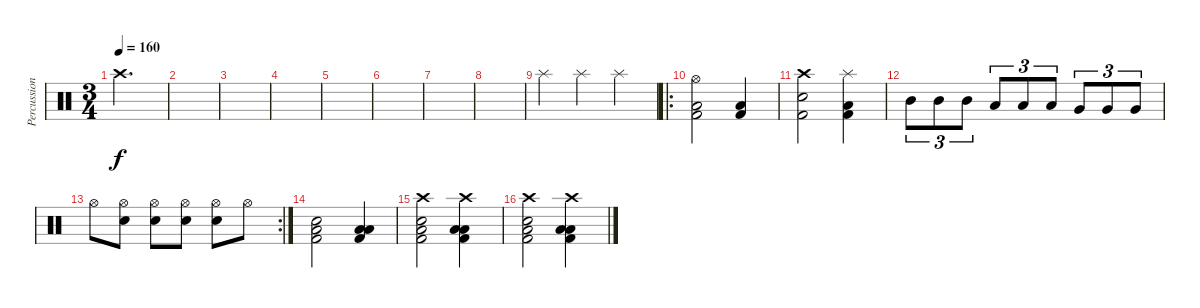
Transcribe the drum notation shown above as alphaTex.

\track ("Percussion" "Percussion") {instrument percussion}
\staff {score}
\articulation defaults
\ts (3 4)
\tempo 160
\clef neutral
\ks c "Crash high (hit)".2{d dy f}
|
|
|
|
|
|
|
|
"Splash (hit)".4 "Splash (hit)".4 "Splash (hit)".4 |
\ro
("Hi-Hat (open)" "Low Floor Tom (hit)" "Kick (hit) 2").2 ("Low Floor Tom (hit)" "Kick (hit) 2").4 |
("Crash high (hit)" "Snare (hit) 2" "Kick (hit) 2").2 ("Splash (hit)" "Low Floor Tom (hit)" "Kick (hit) 2").4 |
"Mid Tom (hit)".8{tu (3 2)} "Mid Tom (hit)".8{tu (3 2)} "Mid Tom (hit)".8{tu (3 2)} "Low Tom (hit)".8{tu (3 2)} "Low Tom (hit)".8{tu (3 2)} "Low Tom (hit)".8{tu (3 2)} "Very Low Tom (hit)".8{tu (3 2)} "Very Low Tom (hit)".8{tu (3 2)} "Very Low Tom (hit)".8{tu (3 2)} |
\rc 2 "Hi-Hat (open)".8
("Hi-Hat (open)" "Snare (hit) 2").8 ("Hi-Hat (open)" "Snare (hit) 2").8 ("Hi-Hat (open)" "Snare (hit) 2").8 ("Hi-Hat (open)" "Snare (hit) 2").8 "Hi-Hat (open)".8 |
("Snare (hit) 2" "Low Floor Tom (hit)" "Kick (hit) 2").2 ("Low Tom (hit)" "Low Floor Tom (hit)" "Kick (hit) 2").4 |
("Crash high (hit)" "Snare (hit) 2" "Low Floor Tom (hit)" "Kick (hit) 2").2 ("Crash high (hit)" "Low Tom (hit)" "Low Floor Tom (hit)" "Kick (hit) 2").4 |
("Crash high (hit)" "Snare (hit) 2" "Low Floor Tom (hit)" "Kick (hit) 2").2 ("Crash high (hit)" "Low Tom (hit)" "Low Floor Tom (hit)" "Kick (hit) 2").4
